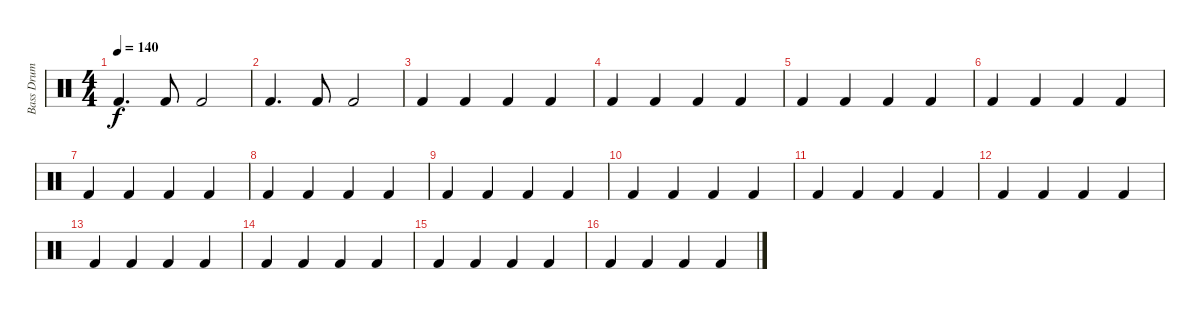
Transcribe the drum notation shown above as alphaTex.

\track ("Bass Drum" "Bass Drum") {instrument percussion}
\staff {score}
\articulation defaults
\ts (4 4)
\tempo 140
\clef neutral
\ks c "Kick (hit) 2".4{d dy f} "Kick (hit) 2".8 "Kick (hit) 2".2
|
"Kick (hit) 2".4{d} "Kick (hit) 2".8 "Kick (hit) 2".2 |
"Kick (hit) 2".4 "Kick (hit) 2".4 "Kick (hit) 2".4 "Kick (hit) 2".4 |
"Kick (hit) 2".4 "Kick (hit) 2".4 "Kick (hit) 2".4 "Kick (hit) 2".4 |
"Kick (hit) 2".4 "Kick (hit) 2".4 "Kick (hit) 2".4 "Kick (hit) 2".4 |
"Kick (hit) 2".4 "Kick (hit) 2".4 "Kick (hit) 2".4 "Kick (hit) 2".4 |
"Kick (hit) 2".4 "Kick (hit) 2".4 "Kick (hit) 2".4 "Kick (hit) 2".4 |
"Kick (hit) 2".4 "Kick (hit) 2".4 "Kick (hit) 2".4 "Kick (hit) 2".4 |
"Kick (hit) 2".4 "Kick (hit) 2".4 "Kick (hit) 2".4 "Kick (hit) 2".4 |
"Kick (hit) 2".4 "Kick (hit) 2".4 "Kick (hit) 2".4 "Kick (hit) 2".4 |
"Kick (hit) 2".4 "Kick (hit) 2".4 "Kick (hit) 2".4 "Kick (hit) 2".4 |
"Kick (hit) 2".4 "Kick (hit) 2".4 "Kick (hit) 2".4 "Kick (hit) 2".4 |
"Kick (hit) 2".4 "Kick (hit) 2".4 "Kick (hit) 2".4 "Kick (hit) 2".4 |
"Kick (hit) 2".4 "Kick (hit) 2".4 "Kick (hit) 2".4 "Kick (hit) 2".4 |
"Kick (hit) 2".4 "Kick (hit) 2".4 "Kick (hit) 2".4 "Kick (hit) 2".4 |
"Kick (hit) 2".4 "Kick (hit) 2".4 "Kick (hit) 2".4 "Kick (hit) 2".4
